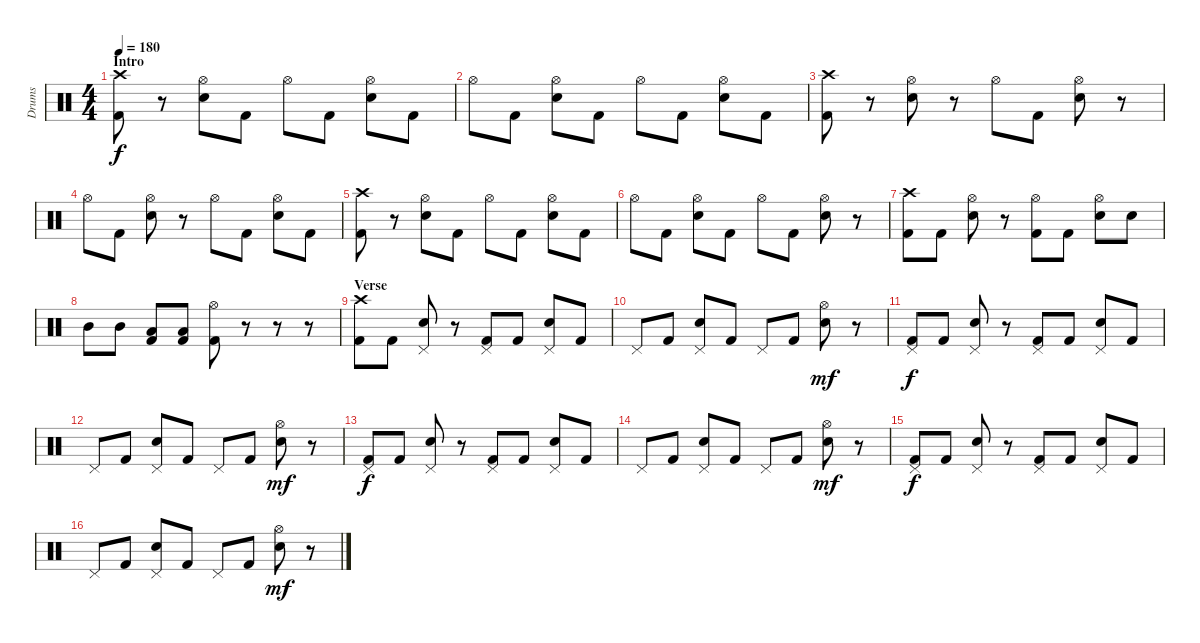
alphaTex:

\track ("Drums" "Drums") {instrument percussion}
\staff {score}
\articulation defaults
\ts (4 4)
\section ("" "Intro")
\tempo 180
\clef neutral
\ks c
("Crash high (hit)" "Kick (hit) 2").8{dy f} r.8 ("Hi-Hat (open)" "Electric Snare (hit)").8 "Kick (hit) 2".8 "Hi-Hat (open)".8 "Kick (hit) 2".8 ("Hi-Hat (open)" "Electric Snare (hit)").8 "Kick (hit) 2".8 |
"Hi-Hat (open)".8 "Kick (hit) 2".8 ("Hi-Hat (open)" "Electric Snare (hit)").8 "Kick (hit) 2".8 "Hi-Hat (open)".8 "Kick (hit) 2".8 ("Hi-Hat (open)" "Electric Snare (hit)").8 "Kick (hit) 2".8 |
("Crash high (hit)" "Kick (hit) 2").8 r.8 ("Hi-Hat (open)" "Electric Snare (hit)").8 r.8 "Hi-Hat (open)".8 "Kick (hit) 2".8 ("Hi-Hat (open)" "Electric Snare (hit)").8 r.8 |
"Hi-Hat (open)".8 "Kick (hit) 2".8 ("Hi-Hat (open)" "Electric Snare (hit)").8 r.8 "Hi-Hat (open)".8 "Kick (hit) 2".8 ("Hi-Hat (open)" "Electric Snare (hit)").8 "Kick (hit) 2".8 |
("Crash high (hit)" "Kick (hit) 2").8 r.8 ("Hi-Hat (open)" "Electric Snare (hit)").8 "Kick (hit) 2".8 "Hi-Hat (open)".8 "Kick (hit) 2".8 ("Hi-Hat (open)" "Electric Snare (hit)").8 "Kick (hit) 2".8 |
"Hi-Hat (open)".8 "Kick (hit) 2".8 ("Hi-Hat (open)" "Electric Snare (hit)").8 "Kick (hit) 2".8 "Hi-Hat (open)".8 "Kick (hit) 2".8 ("Hi-Hat (open)" "Electric Snare (hit)").8 r.8 |
("Crash high (hit)" "Kick (hit) 2").8 "Kick (hit) 2".8 ("Hi-Hat (open)" "Electric Snare (hit)").8 r.8 ("Hi-Hat (open)" "Kick (hit) 2").8 "Kick (hit) 2".8 ("Hi-Hat (open)" "Electric Snare (hit)").8 "Electric Snare (hit)".8 |
"Mid Tom (hit)".8 "Mid Tom (hit)".8 ("Low Tom (hit)" "Kick (hit) 2").8 ("Low Tom (hit)" "Kick (hit) 2").8 ("Hi-Hat (open)" "Kick (hit) 2").8 r.8 r.8 r.8 |
\section ("" "Verse")
("Crash high (hit)" "Kick (hit) 2").8 "Kick (hit) 2".8 ("Pedal Hi-Hat (hit)" "Electric Snare (hit)").8 r.8 ("Pedal Hi-Hat (hit)" "Kick (hit) 2").8 "Kick (hit) 2".8 ("Pedal Hi-Hat (hit)" "Electric Snare (hit)").8 "Kick (hit) 2".8 |
"Pedal Hi-Hat (hit)".8 "Kick (hit) 2".8 ("Pedal Hi-Hat (hit)" "Electric Snare (hit)").8 "Kick (hit) 2".8 "Pedal Hi-Hat (hit)".8 "Kick (hit) 2".8 ("Hi-Hat (open)" "Electric Snare (hit)").8{dy mf} r.8 |
("Pedal Hi-Hat (hit)" "Kick (hit) 2").8{dy f} "Kick (hit) 2".8 ("Pedal Hi-Hat (hit)" "Electric Snare (hit)").8 r.8 ("Pedal Hi-Hat (hit)" "Kick (hit) 2").8 "Kick (hit) 2".8 ("Pedal Hi-Hat (hit)" "Electric Snare (hit)").8 "Kick (hit) 2".8 |
"Pedal Hi-Hat (hit)".8 "Kick (hit) 2".8 ("Pedal Hi-Hat (hit)" "Electric Snare (hit)").8 "Kick (hit) 2".8 "Pedal Hi-Hat (hit)".8 "Kick (hit) 2".8 ("Hi-Hat (open)" "Electric Snare (hit)").8{dy mf} r.8 |
("Pedal Hi-Hat (hit)" "Kick (hit) 2").8{dy f} "Kick (hit) 2".8 ("Pedal Hi-Hat (hit)" "Electric Snare (hit)").8 r.8 ("Pedal Hi-Hat (hit)" "Kick (hit) 2").8 "Kick (hit) 2".8 ("Pedal Hi-Hat (hit)" "Electric Snare (hit)").8 "Kick (hit) 2".8 |
"Pedal Hi-Hat (hit)".8 "Kick (hit) 2".8 ("Pedal Hi-Hat (hit)" "Electric Snare (hit)").8 "Kick (hit) 2".8 "Pedal Hi-Hat (hit)".8 "Kick (hit) 2".8 ("Hi-Hat (open)" "Electric Snare (hit)").8{dy mf} r.8 |
("Pedal Hi-Hat (hit)" "Kick (hit) 2").8{dy f} "Kick (hit) 2".8 ("Pedal Hi-Hat (hit)" "Electric Snare (hit)").8 r.8 ("Pedal Hi-Hat (hit)" "Kick (hit) 2").8 "Kick (hit) 2".8 ("Pedal Hi-Hat (hit)" "Electric Snare (hit)").8 "Kick (hit) 2".8 |
"Pedal Hi-Hat (hit)".8 "Kick (hit) 2".8 ("Pedal Hi-Hat (hit)" "Electric Snare (hit)").8 "Kick (hit) 2".8 "Pedal Hi-Hat (hit)".8 "Kick (hit) 2".8 ("Hi-Hat (open)" "Electric Snare (hit)").8{dy mf} r.8
